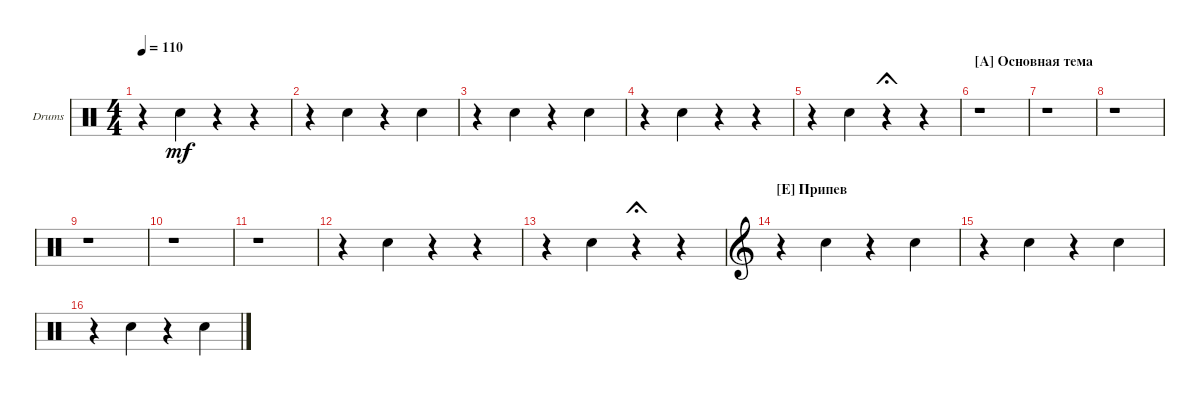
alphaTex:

\defaultSystemsLayout 4
\bracketExtendMode groupsimilarinstruments
\firstSystemTrackNameOrientation horizontal
\otherSystemsTrackNameOrientation horizontal
\track ("Drumkit" "Drums") {instrument percussion}
\staff {score}
\articulation defaults
\ts (4 4)
\tempo 110
\clef neutral
\ks c
r.4{dy mf} "Snare (hit) 2".4 r.4 r.4 |
r.4 "Snare (hit) 2".4 r.4 "Snare (hit) 2".4 |
r.4 "Snare (hit) 2".4 r.4 "Snare (hit) 2".4 |
r.4 "Snare (hit) 2".4 r.4 r.4 |
r.4 "Snare (hit) 2".4 r.4{fermata (short 0)} r.4 |
\section ("A" "Основная тема")
r.1 |
r.1 |
r.1 |
r.1 |
r.1 |
r.1 |
r.4 "Snare (hit) 2".4 r.4 r.4 |
r.4 "Snare (hit) 2".4 r.4{fermata (short 0)} r.4 |
\section ("E" "Припев")
\clef g2
r.4 "Snare (hit) 2".4 r.4 "Snare (hit) 2".4 |
r.4 "Snare (hit) 2".4 r.4 "Snare (hit) 2".4 |
\clef neutral
r.4 "Snare (hit) 2".4 r.4 "Snare (hit) 2".4
